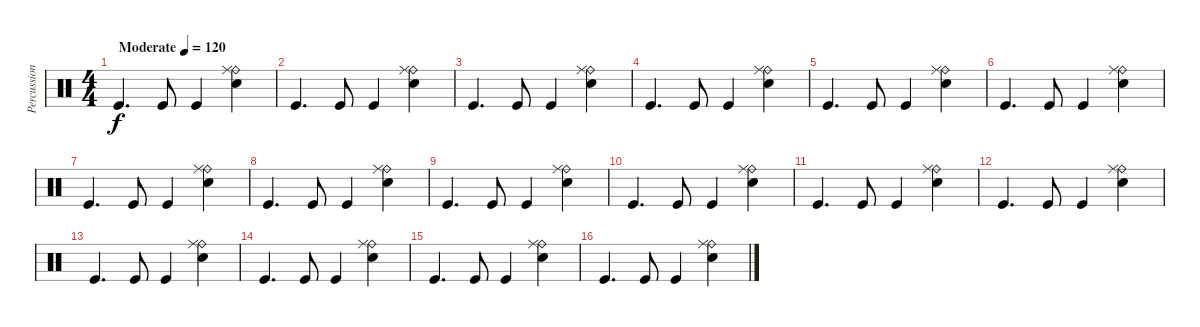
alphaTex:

\track ("Percussion" "Percussion") {instrument percussion}
\staff {score}
\articulation defaults
\ts (4 4)
\tempo (120 "Moderate")
\clef neutral
\ks c "Kick (hit)".4{d dy f} "Kick (hit)".8 "Kick (hit)".4
("Electric Snare (hit)" "Ride (bell)" "Ride (middle)").4 |
"Kick (hit)".4{d} "Kick (hit)".8 "Kick (hit)".4 ("Electric Snare (hit)" "Ride (bell)" "Ride (middle)").4 |
"Kick (hit)".4{d} "Kick (hit)".8 "Kick (hit)".4 ("Electric Snare (hit)" "Ride (bell)" "Ride (middle)").4 |
"Kick (hit)".4{d} "Kick (hit)".8 "Kick (hit)".4 ("Electric Snare (hit)" "Ride (bell)" "Ride (middle)").4 |
"Kick (hit)".4{d} "Kick (hit)".8 "Kick (hit)".4 ("Electric Snare (hit)" "Ride (bell)" "Ride (middle)").4 |
"Kick (hit)".4{d} "Kick (hit)".8 "Kick (hit)".4 ("Electric Snare (hit)" "Ride (bell)" "Ride (middle)").4 |
"Kick (hit)".4{d} "Kick (hit)".8 "Kick (hit)".4 ("Electric Snare (hit)" "Ride (bell)" "Ride (middle)").4 |
"Kick (hit)".4{d} "Kick (hit)".8 "Kick (hit)".4 ("Electric Snare (hit)" "Ride (bell)" "Ride (middle)").4 |
"Kick (hit)".4{d} "Kick (hit)".8 "Kick (hit)".4 ("Electric Snare (hit)" "Ride (bell)" "Ride (middle)").4 |
"Kick (hit)".4{d} "Kick (hit)".8 "Kick (hit)".4 ("Electric Snare (hit)" "Ride (bell)" "Ride (middle)").4 |
"Kick (hit)".4{d} "Kick (hit)".8 "Kick (hit)".4 ("Electric Snare (hit)" "Ride (bell)" "Ride (middle)").4 |
"Kick (hit)".4{d} "Kick (hit)".8 "Kick (hit)".4 ("Electric Snare (hit)" "Ride (bell)" "Ride (middle)").4 |
"Kick (hit)".4{d} "Kick (hit)".8 "Kick (hit)".4 ("Electric Snare (hit)" "Ride (bell)" "Ride (middle)").4 |
"Kick (hit)".4{d} "Kick (hit)".8 "Kick (hit)".4 ("Electric Snare (hit)" "Ride (bell)" "Ride (middle)").4 |
"Kick (hit)".4{d} "Kick (hit)".8 "Kick (hit)".4 ("Electric Snare (hit)" "Ride (bell)" "Ride (middle)").4 |
"Kick (hit)".4{d} "Kick (hit)".8 "Kick (hit)".4 ("Electric Snare (hit)" "Ride (bell)" "Ride (middle)").4
